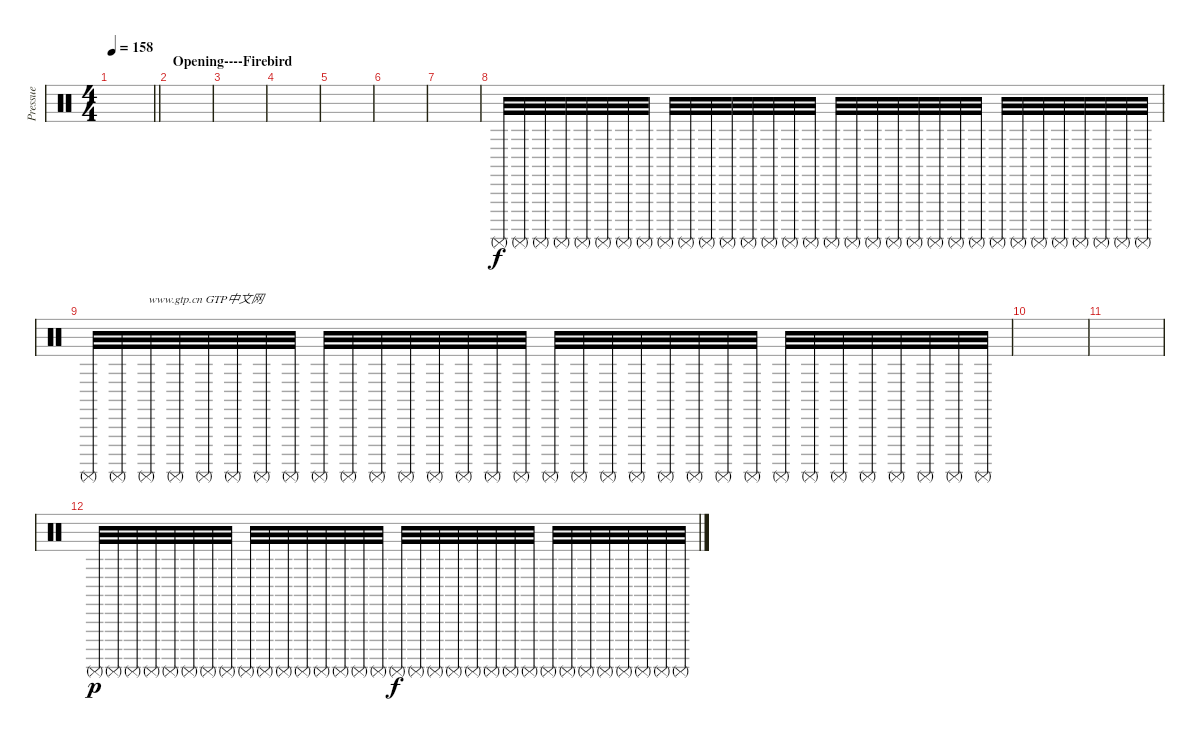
\track ("Pressue" "Pressue") {instrument percussion}
\staff {score}
\articulation defaults
\ts (4 4)
\tempo 158
\clef neutral
\barLineRight lightlight
\ks c
|
\section ("" "Opening----Firebird")
|
|
|
|
|
|
"Surdo (mute)".32 "Surdo (mute)".32 "Surdo (mute)".32 "Surdo (mute)".32 "Surdo (mute)".32 "Surdo (mute)".32 "Surdo (mute)".32 "Surdo (mute)".32 "Surdo (mute)".32 "Surdo (mute)".32 "Surdo (mute)".32 "Surdo (mute)".32 "Surdo (mute)".32 "Surdo (mute)".32 "Surdo (mute)".32 "Surdo (mute)".32 "Surdo (mute)".32{dy f} "Surdo (mute)".32 "Surdo (mute)".32 "Surdo (mute)".32 "Surdo (mute)".32 "Surdo (mute)".32 "Surdo (mute)".32 "Surdo (mute)".32 "Surdo (mute)".32 "Surdo (mute)".32 "Surdo (mute)".32 "Surdo (mute)".32 "Surdo (mute)".32 "Surdo (mute)".32 "Surdo (mute)".32 "Surdo (mute)".32 |
"Surdo (mute)".32{txt "                    www.gtp.cn GTP中文网"} "Surdo (mute)".32 "Surdo (mute)".32 "Surdo (mute)".32 "Surdo (mute)".32 "Surdo (mute)".32 "Surdo (mute)".32 "Surdo (mute)".32 "Surdo (mute)".32 "Surdo (mute)".32 "Surdo (mute)".32 "Surdo (mute)".32 "Surdo (mute)".32 "Surdo (mute)".32 "Surdo (mute)".32 "Surdo (mute)".32 "Surdo (mute)".32 "Surdo (mute)".32 "Surdo (mute)".32 "Surdo (mute)".32 "Surdo (mute)".32 "Surdo (mute)".32 "Surdo (mute)".32 "Surdo (mute)".32 "Surdo (mute)".32 "Surdo (mute)".32 "Surdo (mute)".32 "Surdo (mute)".32 "Surdo (mute)".32 "Surdo (mute)".32 "Surdo (mute)".32 "Surdo (mute)".32 |
|
|
"Surdo (mute)".32{dy p} "Surdo (mute)".32 "Surdo (mute)".32 "Surdo (mute)".32 "Surdo (mute)".32 "Surdo (mute)".32 "Surdo (mute)".32 "Surdo (mute)".32 "Surdo (mute)".32 "Surdo (mute)".32 "Surdo (mute)".32 "Surdo (mute)".32 "Surdo (mute)".32 "Surdo (mute)".32 "Surdo (mute)".32 "Surdo (mute)".32 "Surdo (mute)".32{dy f} "Surdo (mute)".32 "Surdo (mute)".32 "Surdo (mute)".32 "Surdo (mute)".32 "Surdo (mute)".32 "Surdo (mute)".32 "Surdo (mute)".32 "Surdo (mute)".32 "Surdo (mute)".32 "Surdo (mute)".32 "Surdo (mute)".32 "Surdo (mute)".32 "Surdo (mute)".32 "Surdo (mute)".32 "Surdo (mute)".32
